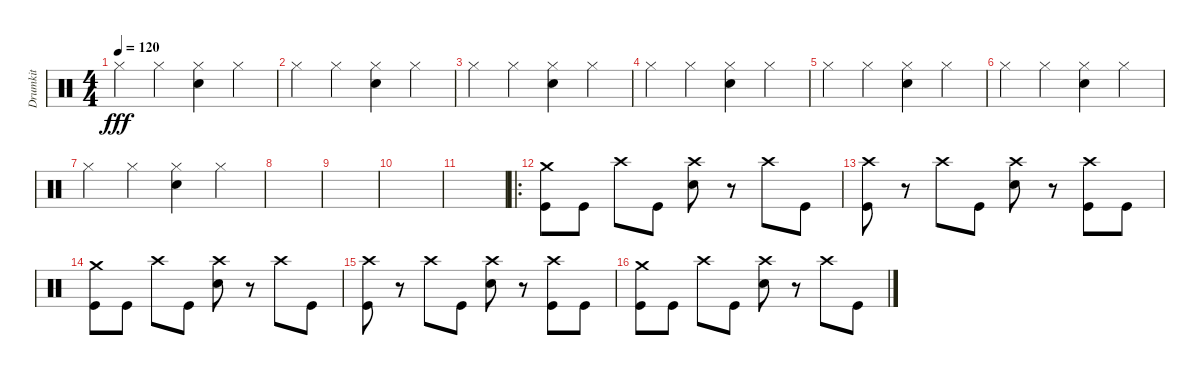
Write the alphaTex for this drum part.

\track ("Drumkit" "Drumkit") {instrument percussion}
\staff {score}
\articulation defaults
\ts (4 4)
\tempo 120
\clef neutral
\ks c "Hi-Hat (closed)".4{dy fff} "Hi-Hat (closed)".4
("Snare (hit) 2" "Hi-Hat (closed)").4 "Hi-Hat (closed)".4 |
"Hi-Hat (closed)".4 "Hi-Hat (closed)".4 ("Snare (hit) 2" "Hi-Hat (closed)").4 "Hi-Hat (closed)".4 |
"Hi-Hat (closed)".4 "Hi-Hat (closed)".4 ("Snare (hit) 2" "Hi-Hat (closed)").4 "Hi-Hat (closed)".4 |
"Hi-Hat (closed)".4 "Hi-Hat (closed)".4 ("Snare (hit) 2" "Hi-Hat (closed)").4 "Hi-Hat (closed)".4 |
"Hi-Hat (closed)".4 "Hi-Hat (closed)".4 ("Snare (hit) 2" "Hi-Hat (closed)").4 "Hi-Hat (closed)".4 |
"Hi-Hat (closed)".4 "Hi-Hat (closed)".4 ("Snare (hit) 2" "Hi-Hat (closed)").4 "Hi-Hat (closed)".4 |
"Hi-Hat (closed)".4 "Hi-Hat (closed)".4 ("Snare (hit) 2" "Hi-Hat (closed)").4 "Hi-Hat (closed)".4 |
|
|
|
|
\ro
("Kick (hit)" "Crash medium (hit)").8 "Kick (hit)".8 "Crash high (hit)".8 "Kick (hit)".8 ("Snare (hit) 2" "Crash high (hit)").8 r.8 "Crash high (hit)".8 "Kick (hit)".8 |
("Kick (hit)" "Crash high (hit)").8 r.8 "Crash high (hit)".8 "Kick (hit)".8 ("Snare (hit) 2" "Crash high (hit)").8 r.8 ("Kick (hit)" "Crash high (hit)").8 "Kick (hit)".8 |
("Kick (hit)" "Crash medium (hit)").8 "Kick (hit)".8 "Crash high (hit)".8 "Kick (hit)".8 ("Snare (hit) 2" "Crash high (hit)").8 r.8 "Crash high (hit)".8 "Kick (hit)".8 |
("Kick (hit)" "Crash high (hit)").8 r.8 "Crash high (hit)".8 "Kick (hit)".8 ("Snare (hit) 2" "Crash high (hit)").8 r.8 ("Kick (hit)" "Crash high (hit)").8 "Kick (hit)".8 |
("Kick (hit)" "Crash medium (hit)").8 "Kick (hit)".8 "Crash high (hit)".8 "Kick (hit)".8 ("Snare (hit) 2" "Crash high (hit)").8 r.8 "Crash high (hit)".8 "Kick (hit)".8
